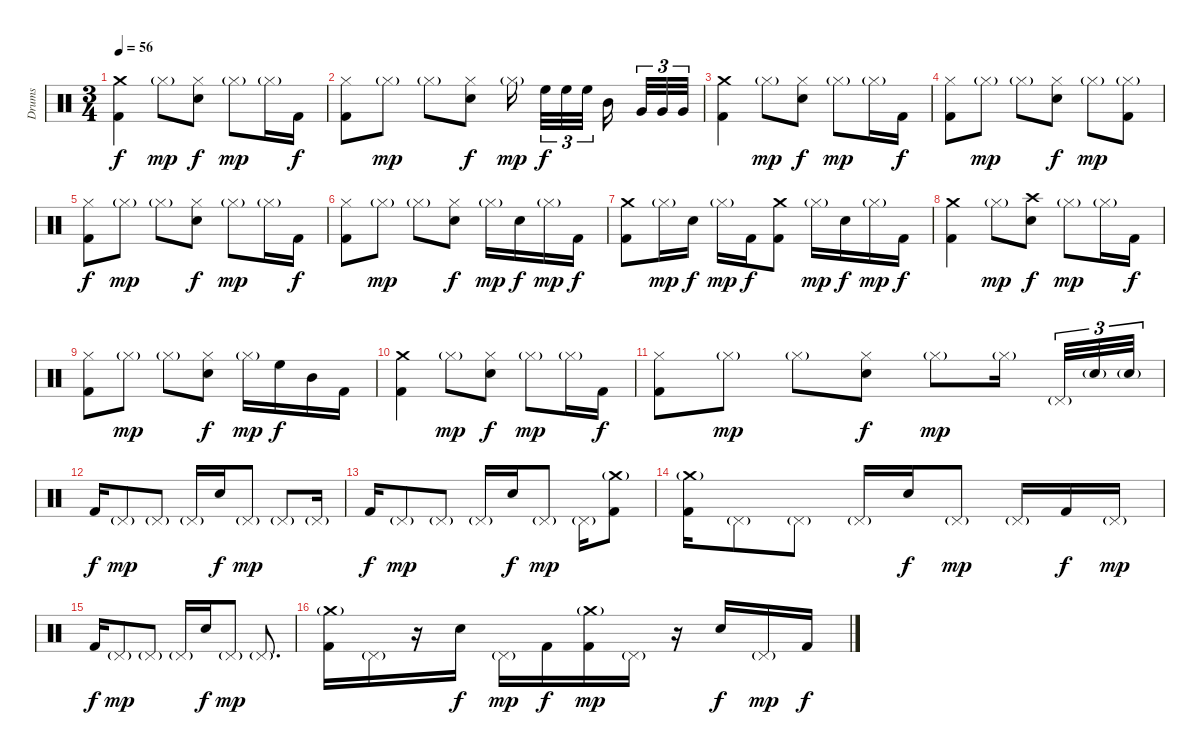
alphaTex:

\track ("Drums" "Drums") {instrument percussion}
\staff {score}
\articulation defaults
\ts (3 4)
\tempo 56
\clef neutral
\ks c
("Crash medium (hit)" "Kick (hit) 2").4{dy f} "Hi-Hat (closed)"{g}.8{dy mp} ("Hi-Hat (closed)" "Electric Snare (hit)").8{dy f} "Hi-Hat (closed)"{g}.8{dy mp} "Hi-Hat (closed)"{g}.16 "Kick (hit) 2".16{dy f} |
("Hi-Hat (closed)" "Kick (hit) 2").8 "Hi-Hat (closed)"{g}.8{dy mp} "Hi-Hat (closed)"{g}.8 ("Hi-Hat (closed)" "Electric Snare (hit)").8{dy f} "Hi-Hat (closed)"{g}.16{dy mp beam splitsecondary} "High Floor Tom (hit)".32{tu (3 2) dy f} "High Floor Tom (hit)".32{tu (3 2)} "High Floor Tom (hit)".32{tu (3 2) beam splitsecondary} "Mid Tom (hit)".16{beam splitsecondary} "Very Low Tom (hit)".32{tu (3 2)} "Very Low Tom (hit)".32{tu (3 2)} "Very Low Tom (hit)".32{tu (3 2)} |
("Crash medium (hit)" "Kick (hit) 2").4 "Hi-Hat (closed)"{g}.8{dy mp} ("Hi-Hat (closed)" "Electric Snare (hit)").8{dy f} "Hi-Hat (closed)"{g}.8{dy mp} "Hi-Hat (closed)"{g}.16 "Kick (hit) 2".16{dy f} |
("Hi-Hat (closed)" "Kick (hit) 2").8 "Hi-Hat (closed)"{g}.8{dy mp} "Hi-Hat (closed)"{g}.8 ("Hi-Hat (closed)" "Electric Snare (hit)").8{dy f} "Hi-Hat (closed)"{g}.8{dy mp} ("Hi-Hat (closed)"{g} "Kick (hit) 2").8 |
("Hi-Hat (closed)" "Kick (hit) 2").8{dy f} "Hi-Hat (closed)"{g}.8{dy mp} "Hi-Hat (closed)"{g}.8 ("Hi-Hat (closed)" "Electric Snare (hit)").8{dy f} "Hi-Hat (closed)"{g}.8{dy mp} "Hi-Hat (closed)"{g}.16 "Kick (hit) 2".16{dy f} |
("Hi-Hat (closed)" "Kick (hit) 2").8 "Hi-Hat (closed)"{g}.8{dy mp} "Hi-Hat (closed)"{g}.8 ("Hi-Hat (closed)" "Electric Snare (hit)").8{dy f} "Hi-Hat (closed)"{g}.16{dy mp} "Electric Snare (hit)".16{dy f} "Hi-Hat (closed)"{g}.16{dy mp} "Kick (hit) 2".16{dy f} |
("Crash medium (hit)" "Kick (hit) 2").8 "Hi-Hat (closed)"{g}.16{dy mp} "Electric Snare (hit)".16{dy f} "Hi-Hat (closed)"{g}.16{dy mp} "Kick (hit) 2".16{dy f} ("Crash medium (hit)" "Kick (hit) 2").8 "Hi-Hat (closed)"{g}.16{dy mp} "Electric Snare (hit)".16{dy f} "Hi-Hat (closed)"{g}.16{dy mp} "Kick (hit) 2".16{dy f} |
("Crash medium (hit)" "Kick (hit) 2").4 "Hi-Hat (closed)"{g}.8{dy mp} ("Crash high (hit)" "Electric Snare (hit)").8{dy f} "Hi-Hat (closed)"{g}.8{dy mp} "Hi-Hat (closed)"{g}.16 "Kick (hit) 2".16{dy f} |
("Hi-Hat (closed)" "Kick (hit) 2").8 "Hi-Hat (closed)"{g}.8{dy mp} "Hi-Hat (closed)"{g}.8 ("Hi-Hat (closed)" "Electric Snare (hit)").8{dy f} "Hi-Hat (closed)"{g}.16{dy mp} "High Floor Tom (hit)".16{dy f} "Mid Tom (hit)".16 "Kick (hit) 2".16 |
("Crash medium (hit)" "Kick (hit) 2").4 "Hi-Hat (closed)"{g}.8{dy mp} ("Hi-Hat (closed)" "Electric Snare (hit)").8{dy f} "Hi-Hat (closed)"{g}.8{dy mp} "Hi-Hat (closed)"{g}.16 "Kick (hit) 2".16{dy f} |
("Hi-Hat (closed)" "Kick (hit) 2").8 "Hi-Hat (closed)"{g}.8{dy mp} "Hi-Hat (closed)"{g}.8 ("Hi-Hat (closed)" "Electric Snare (hit)").8{dy f} "Hi-Hat (closed)"{g}.8{dy mp} "Hi-Hat (closed)"{g}.16{beam splitsecondary} "Pedal Hi-Hat (hit)"{g}.32{tu (3 2)} "Electric Snare (hit)"{g}.32{tu (3 2)} "Electric Snare (hit)"{g}.32{tu (3 2)} |
"Kick (hit) 2".16{dy f} "Pedal Hi-Hat (hit)"{g}.8{dy mp} "Pedal Hi-Hat (hit)"{g}.8 "Pedal Hi-Hat (hit)"{g}.16 "Electric Snare (hit)".16{dy f} "Pedal Hi-Hat (hit)"{g}.8{dy mp} "Pedal Hi-Hat (hit)"{g}.8 "Pedal Hi-Hat (hit)"{g}.16 |
"Kick (hit) 2".16{dy f} "Pedal Hi-Hat (hit)"{g}.8{dy mp} "Pedal Hi-Hat (hit)"{g}.8 "Pedal Hi-Hat (hit)"{g}.16 "Electric Snare (hit)".16{dy f} "Pedal Hi-Hat (hit)"{g}.8{dy mp} "Pedal Hi-Hat (hit)"{g}.16 ("Crash medium (hit)"{g} "Kick (hit) 2").8 |
("Crash medium (hit)"{g} "Kick (hit) 2").16 "Pedal Hi-Hat (hit)"{g}.8 "Pedal Hi-Hat (hit)"{g}.8 "Pedal Hi-Hat (hit)"{g}.16 "Electric Snare (hit)".16{dy f} "Pedal Hi-Hat (hit)"{g}.8{dy mp} "Pedal Hi-Hat (hit)"{g}.16 "Kick (hit) 2".16{dy f} "Pedal Hi-Hat (hit)"{g}.16{dy mp} |
"Kick (hit) 2".16{dy f} "Pedal Hi-Hat (hit)"{g}.8{dy mp} "Pedal Hi-Hat (hit)"{g}.8 "Pedal Hi-Hat (hit)"{g}.16 "Electric Snare (hit)".16{dy f} "Pedal Hi-Hat (hit)"{g}.8{dy mp} "Pedal Hi-Hat (hit)"{g}.8{d} |
("Crash medium (hit)"{g} "Kick (hit) 2").16 "Pedal Hi-Hat (hit)"{g}.16 r.16 "Electric Snare (hit)".16{dy f} "Pedal Hi-Hat (hit)"{g}.16{dy mp} "Kick (hit) 2".16{dy f} ("Crash medium (hit)"{g} "Kick (hit) 2").16{dy mp} "Pedal Hi-Hat (hit)"{g}.16 r.16 "Electric Snare (hit)".16{dy f} "Pedal Hi-Hat (hit)"{g}.16{dy mp} "Kick (hit) 2".16{dy f}
